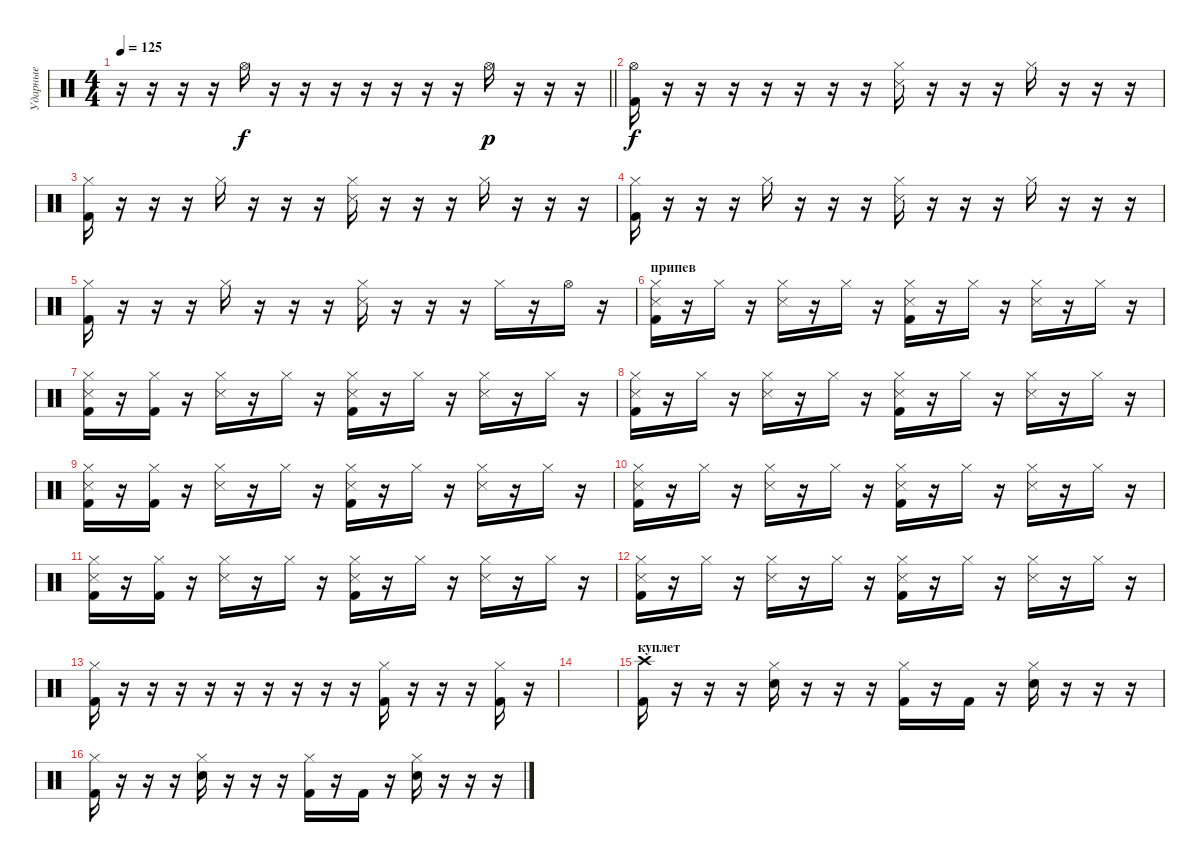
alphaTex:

\track ("Ударные" "Ударные") {instrument percussion}
\staff {score}
\articulation defaults
\ts (4 4)
\tempo 125
\clef neutral
\barLineRight lightlight
\ks c
r.16{dy f} r.16 r.16 r.16 "Hi-Hat (open)".16 r.16 r.16 r.16 r.16 r.16 r.16 r.16 "Hi-Hat (open)".16{dy p} r.16 r.16 r.16 |
("Hi-Hat (open)" "Kick (hit) 2").16{dy f} r.16 r.16 r.16 r.16 r.16 r.16 r.16 ("Hi-Hat (closed)" "Snare (side stick) 3").16 r.16 r.16 r.16 "Hi-Hat (closed)".16 r.16 r.16 r.16 |
("Hi-Hat (closed)" "Kick (hit) 2").16 r.16 r.16 r.16 "Hi-Hat (closed)".16 r.16 r.16 r.16 ("Hi-Hat (closed)" "Snare (side stick) 3").16 r.16 r.16 r.16 "Hi-Hat (closed)".16 r.16 r.16 r.16 |
("Hi-Hat (closed)" "Kick (hit) 2").16 r.16 r.16 r.16 "Hi-Hat (closed)".16 r.16 r.16 r.16 ("Hi-Hat (closed)" "Snare (side stick) 3").16 r.16 r.16 r.16 "Hi-Hat (closed)".16 r.16 r.16 r.16 |
("Hi-Hat (closed)" "Kick (hit) 2").16 r.16 r.16 r.16 "Hi-Hat (closed)".16 r.16 r.16 r.16 ("Hi-Hat (closed)" "Snare (side stick) 3").16 r.16 r.16 r.16 "Hi-Hat (closed)".16 r.16 "Hi-Hat (open)".16 r.16 |
\section ("" "припев")
("Hi-Hat (closed)" "Snare (side stick) 3" "Kick (hit) 2").16 r.16 "Hi-Hat (closed)".16 r.16 ("Hi-Hat (closed)" "Snare (side stick) 3").16 r.16 "Hi-Hat (closed)".16 r.16 ("Hi-Hat (closed)" "Snare (side stick) 3" "Kick (hit) 2").16 r.16 "Hi-Hat (closed)".16 r.16 ("Hi-Hat (closed)" "Snare (side stick) 3").16 r.16 "Hi-Hat (closed)".16 r.16 |
("Hi-Hat (closed)" "Snare (side stick) 3" "Kick (hit) 2").16 r.16 ("Hi-Hat (closed)" "Kick (hit) 2").16 r.16 ("Hi-Hat (closed)" "Snare (side stick) 3").16 r.16 "Hi-Hat (closed)".16 r.16 ("Hi-Hat (closed)" "Snare (side stick) 3" "Kick (hit) 2").16 r.16 "Hi-Hat (closed)".16 r.16 ("Hi-Hat (closed)" "Snare (side stick) 3").16 r.16 "Hi-Hat (closed)".16 r.16 |
("Hi-Hat (closed)" "Snare (side stick) 3" "Kick (hit) 2").16 r.16 "Hi-Hat (closed)".16 r.16 ("Hi-Hat (closed)" "Snare (side stick) 3").16 r.16 "Hi-Hat (closed)".16 r.16 ("Hi-Hat (closed)" "Snare (side stick) 3" "Kick (hit) 2").16 r.16 "Hi-Hat (closed)".16 r.16 ("Hi-Hat (closed)" "Snare (side stick) 3").16 r.16 "Hi-Hat (closed)".16 r.16 |
("Hi-Hat (closed)" "Snare (side stick) 3" "Kick (hit) 2").16 r.16 ("Hi-Hat (closed)" "Kick (hit) 2").16 r.16 ("Hi-Hat (closed)" "Snare (side stick) 3").16 r.16 "Hi-Hat (closed)".16 r.16 ("Hi-Hat (closed)" "Snare (side stick) 3" "Kick (hit) 2").16 r.16 "Hi-Hat (closed)".16 r.16 ("Hi-Hat (closed)" "Snare (side stick) 3").16 r.16 "Hi-Hat (closed)".16 r.16 |
("Hi-Hat (closed)" "Snare (side stick) 3" "Kick (hit) 2").16 r.16 "Hi-Hat (closed)".16 r.16 ("Hi-Hat (closed)" "Snare (side stick) 3").16 r.16 "Hi-Hat (closed)".16 r.16 ("Hi-Hat (closed)" "Snare (side stick) 3" "Kick (hit) 2").16 r.16 "Hi-Hat (closed)".16 r.16 ("Hi-Hat (closed)" "Snare (side stick) 3").16 r.16 "Hi-Hat (closed)".16 r.16 |
("Hi-Hat (closed)" "Snare (side stick) 3" "Kick (hit) 2").16 r.16 ("Hi-Hat (closed)" "Kick (hit) 2").16 r.16 ("Hi-Hat (closed)" "Snare (side stick) 3").16 r.16 "Hi-Hat (closed)".16 r.16 ("Hi-Hat (closed)" "Snare (side stick) 3" "Kick (hit) 2").16 r.16 "Hi-Hat (closed)".16 r.16 ("Hi-Hat (closed)" "Snare (side stick) 3").16 r.16 "Hi-Hat (closed)".16 r.16 |
("Hi-Hat (closed)" "Snare (side stick) 3" "Kick (hit) 2").16 r.16 "Hi-Hat (closed)".16 r.16 ("Hi-Hat (closed)" "Snare (side stick) 3").16 r.16 "Hi-Hat (closed)".16 r.16 ("Hi-Hat (closed)" "Snare (side stick) 3" "Kick (hit) 2").16 r.16 "Hi-Hat (closed)".16 r.16 ("Hi-Hat (closed)" "Snare (side stick) 3").16 r.16 "Hi-Hat (closed)".16 r.16 |
("Hi-Hat (closed)" "Kick (hit) 2").16 r.16 r.16 r.16 r.16 r.16 r.16 r.16 r.16 r.16 ("Hi-Hat (closed)" "Kick (hit) 2").16 r.16 r.16 r.16 ("Hi-Hat (closed)" "Kick (hit) 2").16 r.16 |
|
\section ("" "куплет")
("Crash high (hit)" "Kick (hit) 2").16 r.16 r.16 r.16 ("Hi-Hat (closed)" "Electric Snare (hit)").16 r.16 r.16 r.16 ("Hi-Hat (closed)" "Kick (hit) 2").16 r.16 "Kick (hit) 2".16 r.16 ("Hi-Hat (closed)" "Electric Snare (hit)").16 r.16 r.16 r.16 |
("Hi-Hat (closed)" "Kick (hit) 2").16 r.16 r.16 r.16 ("Hi-Hat (closed)" "Electric Snare (hit)").16 r.16 r.16 r.16 ("Hi-Hat (closed)" "Kick (hit) 2").16 r.16 "Kick (hit) 2".16 r.16 ("Hi-Hat (closed)" "Electric Snare (hit)").16 r.16 r.16 r.16
